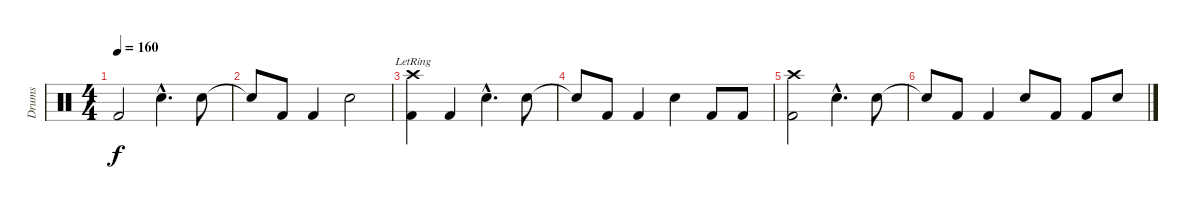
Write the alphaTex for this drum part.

\track ("Drums" "Drums") {instrument percussion}
\staff {score}
\articulation defaults
\ts (4 4)
\tempo 160
\clef neutral
\ks c "Kick (hit) 2".2{dy f} "Snare (hit) 2"{hac}.4{d} "Snare (hit) 2".8
|
"Snare (hit) 2"{t}.8 "Kick (hit) 2".8 "Kick (hit) 2".4 "Snare (hit) 2".2 |
("Crash high (hit)"{lr} "Kick (hit) 2").4 "Kick (hit) 2".4 "Snare (hit) 2"{hac}.4{d} "Snare (hit) 2".8 |
"Snare (hit) 2"{t}.8 "Kick (hit) 2".8 "Kick (hit) 2".4 "Snare (hit) 2".4 "Kick (hit) 2".8 "Kick (hit) 2".8 |
("Crash high (hit)" "Kick (hit) 2").2 "Snare (hit) 2"{hac}.4{d} "Snare (hit) 2".8 |
"Snare (hit) 2"{t}.8 "Kick (hit) 2".8 "Kick (hit) 2".4 "Snare (hit) 2".8 "Kick (hit) 2".8 "Kick (hit) 2".8 "Snare (hit) 2".8
